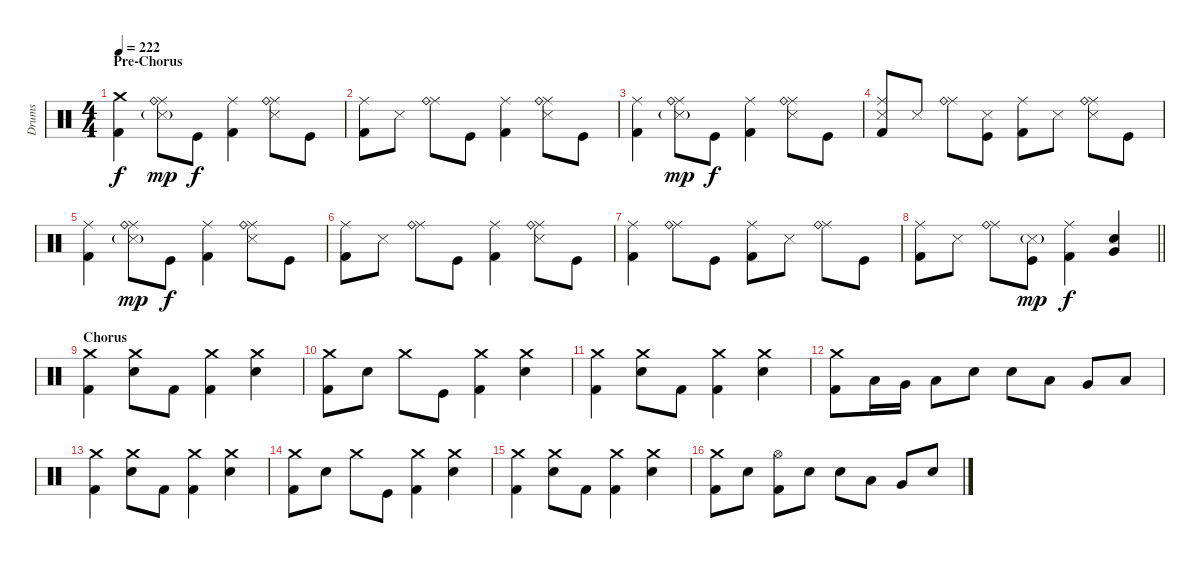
\track ("Drums" "Drums") {instrument percussion}
\staff {score}
\articulation defaults
\ts (4 4)
\section ("" "Pre-Chorus")
\tempo 222
\clef neutral
\ks c
("Crash medium (hit)" "Kick (hit) 2").4{dy f} ("Ride (middle)" "Ride (bell)" "Snare (side stick) 3"{g}).8{dy mp} "Kick (hit)".8{dy f} ("Ride (middle)" "Kick (hit) 2").4 ("Ride (middle)" "Ride (bell)" "Snare (side stick) 3").8 "Kick (hit)".8 |
("Ride (middle)" "Kick (hit) 2").8 "Snare (side stick) 3".8 ("Ride (middle)" "Ride (bell)").8 "Kick (hit)".8 ("Ride (middle)" "Kick (hit) 2").4 ("Ride (middle)" "Ride (bell)" "Snare (side stick) 3").8 "Kick (hit)".8 |
("Ride (middle)" "Kick (hit) 2").4 ("Ride (middle)" "Ride (bell)" "Snare (side stick) 3"{g}).8{dy mp} "Kick (hit)".8{dy f} ("Ride (middle)" "Kick (hit) 2").4 ("Ride (middle)" "Ride (bell)" "Snare (side stick) 3").8 "Kick (hit)".8 |
("Ride (middle)" "Snare (side stick) 3" "Kick (hit) 2").8 "Snare (side stick) 3".8 ("Ride (middle)" "Ride (bell)").8 ("Snare (side stick) 3" "Kick (hit)").8 ("Ride (middle)" "Kick (hit) 2").8 "Snare (side stick) 3".8 ("Ride (middle)" "Ride (bell)" "Snare (side stick) 3").8 "Kick (hit)".8 |
("Ride (middle)" "Kick (hit) 2").4 ("Ride (middle)" "Ride (bell)" "Snare (side stick) 3"{g}).8{dy mp} "Kick (hit)".8{dy f} ("Ride (middle)" "Kick (hit) 2").4 ("Ride (middle)" "Ride (bell)" "Snare (side stick) 3").8 "Kick (hit)".8 |
("Ride (middle)" "Kick (hit) 2").8 "Snare (side stick) 3".8 ("Ride (middle)" "Ride (bell)").8 "Kick (hit)".8 ("Ride (middle)" "Kick (hit) 2").4 ("Ride (middle)" "Ride (bell)" "Snare (side stick) 3").8 "Kick (hit)".8 |
("Ride (middle)" "Kick (hit) 2").4 ("Ride (middle)" "Ride (bell)").8 "Kick (hit)".8 ("Ride (middle)" "Kick (hit) 2").8 "Snare (side stick) 3".8 ("Ride (middle)" "Ride (bell)").8 "Kick (hit)".8 |
\barLineRight lightlight
("Ride (middle)" "Kick (hit) 2").8 "Snare (side stick) 3".8 ("Ride (middle)" "Ride (bell)").8 ("Snare (side stick) 3"{g} "Kick (hit)").8{dy mp} ("Ride (middle)" "Kick (hit) 2").4{dy f} ("Electric Snare (hit)" "Very Low Tom (hit)").4 |
\section ("" "Chorus")
("Crash medium (hit)" "Kick (hit) 2").4 ("Crash medium (hit)" "Electric Snare (hit)").8 "Kick (hit) 2".8 ("Crash medium (hit)" "Kick (hit) 2").4 ("Crash medium (hit)" "Electric Snare (hit)").4 |
("Crash medium (hit)" "Kick (hit) 2").8 "Electric Snare (hit)".8 "Crash medium (hit)".8 "Kick (hit)".8 ("Crash medium (hit)" "Kick (hit) 2").4 ("Crash medium (hit)" "Electric Snare (hit)").4 |
("Crash medium (hit)" "Kick (hit) 2").4 ("Crash medium (hit)" "Electric Snare (hit)").8 "Kick (hit) 2".8 ("Crash medium (hit)" "Kick (hit) 2").4 ("Crash medium (hit)" "Electric Snare (hit)").4 |
("Crash medium (hit)" "Kick (hit) 2").8 "Low Tom (hit)".16 "Very Low Tom (hit)".16 "Low Floor Tom (hit)".8 "Electric Snare (hit)".8 "Electric Snare (hit)".8 "Low Tom (hit)".8 "Very Low Tom (hit)".8 "Low Floor Tom (hit)".8 |
("Crash medium (hit)" "Kick (hit) 2").4 ("Crash medium (hit)" "Electric Snare (hit)").8 "Kick (hit) 2".8 ("Crash medium (hit)" "Kick (hit) 2").4 ("Crash medium (hit)" "Electric Snare (hit)").4 |
("Crash medium (hit)" "Kick (hit) 2").8 "Electric Snare (hit)".8 "Crash medium (hit)".8 "Kick (hit)".8 ("Crash medium (hit)" "Kick (hit) 2").4 ("Crash medium (hit)" "Electric Snare (hit)").4 |
("Crash medium (hit)" "Kick (hit) 2").4 ("Crash medium (hit)" "Electric Snare (hit)").8 "Kick (hit) 2".8 ("Crash medium (hit)" "Kick (hit) 2").4 ("Crash medium (hit)" "Electric Snare (hit)").4 |
("Crash medium (hit)" "Kick (hit) 2").8 "Electric Snare (hit)".8 ("Hi-Hat (open)" "Kick (hit) 2").8 "Electric Snare (hit)".8 "Electric Snare (hit)".8 "Low Tom (hit)".8 "Very Low Tom (hit)".8 "Electric Snare (hit)".8
